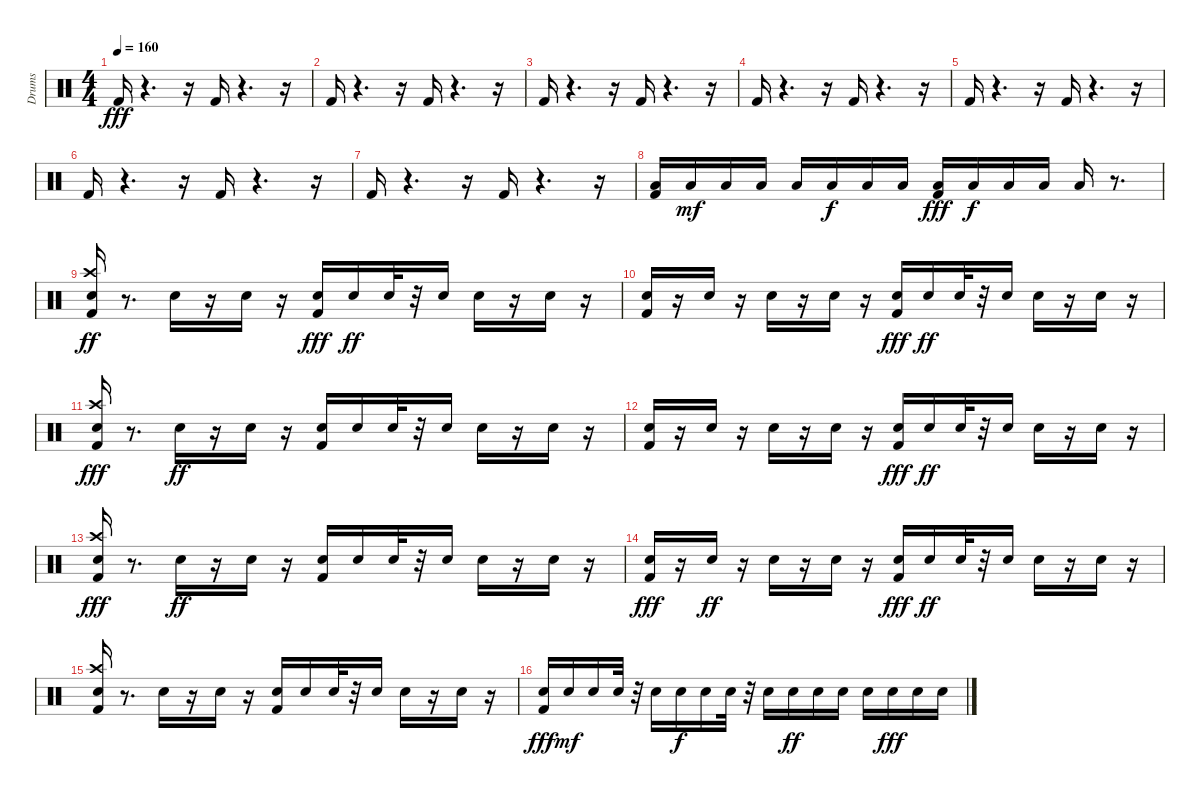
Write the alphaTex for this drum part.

\track ("Drums" "Drums") {instrument percussion}
\staff {score}
\articulation defaults
\ts (4 4)
\tempo 160
\clef neutral
\ks c "Kick (hit) 2".16{dy fff}
r.4{d} r.16 "Kick (hit) 2".16 r.4{d} r.16 |
"Kick (hit) 2".16 r.4{d} r.16 "Kick (hit) 2".16 r.4{d} r.16 |
"Kick (hit) 2".16 r.4{d} r.16 "Kick (hit) 2".16 r.4{d} r.16 |
"Kick (hit) 2".16 r.4{d} r.16 "Kick (hit) 2".16 r.4{d} r.16 |
"Kick (hit) 2".16 r.4{d} r.16 "Kick (hit) 2".16 r.4{d} r.16 |
"Kick (hit) 2".16 r.4{d} r.16 "Kick (hit) 2".16 r.4{d} r.16 |
"Kick (hit) 2".16 r.4{d} r.16 "Kick (hit) 2".16 r.4{d} r.16 |
("Low Floor Tom (hit)" "Kick (hit) 2").16 "Low Floor Tom (hit)".16{dy mf} "Low Floor Tom (hit)".16 "Low Floor Tom (hit)".16 "Low Floor Tom (hit)".16 "Low Floor Tom (hit)".16{dy f} "Low Floor Tom (hit)".16 "Low Floor Tom (hit)".16 ("Kick (hit) 2" "Low Floor Tom (hit)").16{dy fff} "Low Floor Tom (hit)".16{dy f} "Low Floor Tom (hit)".16 "Low Floor Tom (hit)".16 "Low Floor Tom (hit)".16 r.8{d} |
("Kick (hit) 2" "Crash high (hit)" "Electric Snare (hit)").16{dy ff} r.8{d} "Electric Snare (hit)".16 r.16 "Electric Snare (hit)".16 r.16 ("Electric Snare (hit)" "Kick (hit) 2").16{dy fff} "Electric Snare (hit)".16{dy ff} "Electric Snare (hit)".32 r.32 "Electric Snare (hit)".16 "Electric Snare (hit)".16 r.16 "Electric Snare (hit)".16 r.16 |
("Kick (hit) 2" "Electric Snare (hit)").16 r.16 "Electric Snare (hit)".16 r.16 "Electric Snare (hit)".16 r.16 "Electric Snare (hit)".16 r.16 ("Electric Snare (hit)" "Kick (hit) 2").16{dy fff} "Electric Snare (hit)".16{dy ff} "Electric Snare (hit)".32 r.32 "Electric Snare (hit)".16 "Electric Snare (hit)".16 r.16 "Electric Snare (hit)".16 r.16 |
("Crash high (hit)" "Electric Snare (hit)" "Kick (hit) 2").16{dy fff} r.8{d} "Electric Snare (hit)".16{dy ff} r.16 "Electric Snare (hit)".16 r.16 ("Kick (hit) 2" "Electric Snare (hit)").16 "Electric Snare (hit)".16 "Electric Snare (hit)".32 r.32 "Electric Snare (hit)".16 "Electric Snare (hit)".16 r.16 "Electric Snare (hit)".16 r.16 |
("Kick (hit) 2" "Electric Snare (hit)").16 r.16 "Electric Snare (hit)".16 r.16 "Electric Snare (hit)".16 r.16 "Electric Snare (hit)".16 r.16 ("Electric Snare (hit)" "Kick (hit) 2").16{dy fff} "Electric Snare (hit)".16{dy ff} "Electric Snare (hit)".32 r.32 "Electric Snare (hit)".16 "Electric Snare (hit)".16 r.16 "Electric Snare (hit)".16 r.16 |
("Crash high (hit)" "Electric Snare (hit)" "Kick (hit) 2").16{dy fff} r.8{d} "Electric Snare (hit)".16{dy ff} r.16 "Electric Snare (hit)".16 r.16 ("Kick (hit) 2" "Electric Snare (hit)").16 "Electric Snare (hit)".16 "Electric Snare (hit)".32 r.32 "Electric Snare (hit)".16 "Electric Snare (hit)".16 r.16 "Electric Snare (hit)".16 r.16 |
("Electric Snare (hit)" "Kick (hit) 2").16{dy fff} r.16 "Electric Snare (hit)".16{dy ff} r.16 "Electric Snare (hit)".16 r.16 "Electric Snare (hit)".16 r.16 ("Electric Snare (hit)" "Kick (hit) 2").16{dy fff} "Electric Snare (hit)".16{dy ff} "Electric Snare (hit)".32 r.32 "Electric Snare (hit)".16 "Electric Snare (hit)".16 r.16 "Electric Snare (hit)".16 r.16 |
("Kick (hit) 2" "Crash high (hit)" "Electric Snare (hit)").16 r.8{d} "Electric Snare (hit)".16 r.16 "Electric Snare (hit)".16 r.16 ("Kick (hit) 2" "Electric Snare (hit)").16 "Electric Snare (hit)".16 "Electric Snare (hit)".32 r.32 "Electric Snare (hit)".16 "Electric Snare (hit)".16 r.16 "Electric Snare (hit)".16 r.16 |
("Electric Snare (hit)" "Kick (hit) 2").16{dy fff} "Electric Snare (hit)".16{dy mf} "Electric Snare (hit)".16 "Electric Snare (hit)".32 r.32 "Electric Snare (hit)".16 "Electric Snare (hit)".16{dy f} "Electric Snare (hit)".16 "Electric Snare (hit)".32 r.32 "Electric Snare (hit)".16 "Electric Snare (hit)".16{dy ff} "Electric Snare (hit)".16 "Electric Snare (hit)".16 "Electric Snare (hit)".16 "Electric Snare (hit)".16{dy fff} "Electric Snare (hit)".16 "Electric Snare (hit)".16
